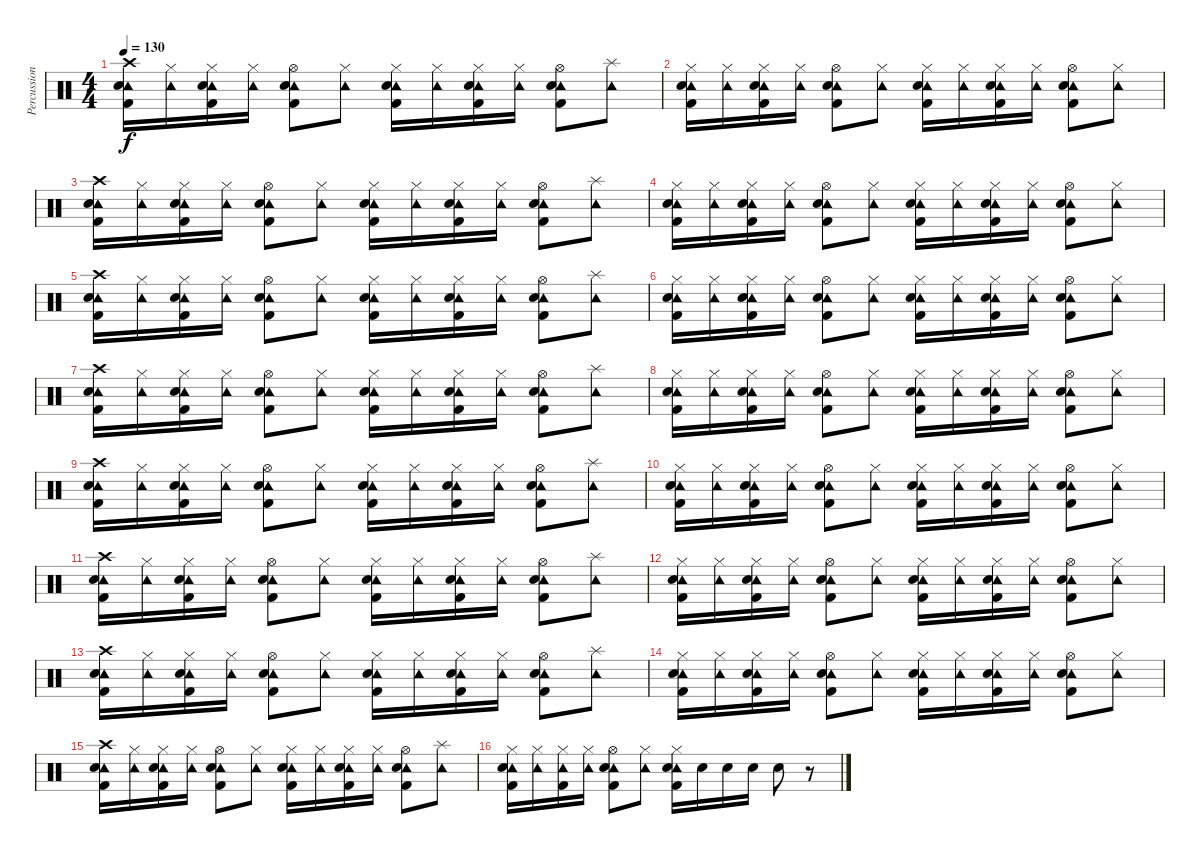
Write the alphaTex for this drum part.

\track ("Percussion" "Percussion") {instrument percussion}
\staff {score}
\articulation defaults
\ts (4 4)
\tempo 130
\clef neutral
\ks c
("Crash high (hit)" "Tambourine (hit)" "Electric Snare (hit)" "Kick (hit) 2").16{dy f volume 16} ("Hi-Hat (closed)" "Tambourine (hit)").16 ("Hi-Hat (closed)" "Tambourine (hit)" "Electric Snare (hit)" "Kick (hit) 2").16 ("Hi-Hat (closed)" "Tambourine (hit)").16 ("Hi-Hat (open)" "Tambourine (hit)" "Electric Snare (hit)" "Kick (hit) 2").8 ("Hi-Hat (closed)" "Tambourine (hit)").8 ("Hi-Hat (closed)" "Tambourine (hit)" "Electric Snare (hit)" "Kick (hit) 2").16 ("Hi-Hat (closed)" "Tambourine (hit)").16 ("Hi-Hat (closed)" "Tambourine (hit)" "Electric Snare (hit)" "Kick (hit) 2").16 ("Hi-Hat (closed)" "Tambourine (hit)").16 ("Hi-Hat (open)" "Tambourine (hit)" "Electric Snare (hit)" "Kick (hit) 2").8 ("Splash (hit)" "Tambourine (hit)").8 |
("Hi-Hat (closed)" "Tambourine (hit)" "Electric Snare (hit)" "Kick (hit) 2").16 ("Hi-Hat (closed)" "Tambourine (hit)").16 ("Hi-Hat (closed)" "Tambourine (hit)" "Electric Snare (hit)" "Kick (hit) 2").16 ("Hi-Hat (closed)" "Tambourine (hit)").16 ("Hi-Hat (open)" "Tambourine (hit)" "Electric Snare (hit)" "Kick (hit) 2").8 ("Hi-Hat (closed)" "Tambourine (hit)").8 ("Hi-Hat (closed)" "Tambourine (hit)" "Electric Snare (hit)" "Kick (hit) 2").16 ("Hi-Hat (closed)" "Tambourine (hit)").16 ("Hi-Hat (closed)" "Tambourine (hit)" "Electric Snare (hit)" "Kick (hit) 2").16 ("Hi-Hat (closed)" "Tambourine (hit)").16 ("Hi-Hat (open)" "Tambourine (hit)" "Electric Snare (hit)" "Kick (hit) 2").8 ("Hi-Hat (closed)" "Tambourine (hit)").8 |
("Crash high (hit)" "Tambourine (hit)" "Electric Snare (hit)" "Kick (hit) 2").16{volume 16} ("Hi-Hat (closed)" "Tambourine (hit)").16 ("Hi-Hat (closed)" "Tambourine (hit)" "Electric Snare (hit)" "Kick (hit) 2").16 ("Hi-Hat (closed)" "Tambourine (hit)").16 ("Hi-Hat (open)" "Tambourine (hit)" "Electric Snare (hit)" "Kick (hit) 2").8 ("Hi-Hat (closed)" "Tambourine (hit)").8 ("Hi-Hat (closed)" "Tambourine (hit)" "Electric Snare (hit)" "Kick (hit) 2").16 ("Hi-Hat (closed)" "Tambourine (hit)").16 ("Hi-Hat (closed)" "Tambourine (hit)" "Electric Snare (hit)" "Kick (hit) 2").16 ("Hi-Hat (closed)" "Tambourine (hit)").16 ("Hi-Hat (open)" "Tambourine (hit)" "Electric Snare (hit)" "Kick (hit) 2").8 ("Splash (hit)" "Tambourine (hit)").8 |
("Hi-Hat (closed)" "Tambourine (hit)" "Electric Snare (hit)" "Kick (hit) 2").16 ("Hi-Hat (closed)" "Tambourine (hit)").16 ("Hi-Hat (closed)" "Tambourine (hit)" "Electric Snare (hit)" "Kick (hit) 2").16 ("Hi-Hat (closed)" "Tambourine (hit)").16 ("Hi-Hat (open)" "Tambourine (hit)" "Electric Snare (hit)" "Kick (hit) 2").8 ("Hi-Hat (closed)" "Tambourine (hit)").8 ("Hi-Hat (closed)" "Tambourine (hit)" "Electric Snare (hit)" "Kick (hit) 2").16 ("Hi-Hat (closed)" "Tambourine (hit)").16 ("Hi-Hat (closed)" "Tambourine (hit)" "Electric Snare (hit)" "Kick (hit) 2").16 ("Hi-Hat (closed)" "Tambourine (hit)").16 ("Hi-Hat (open)" "Tambourine (hit)" "Electric Snare (hit)" "Kick (hit) 2").8 ("Hi-Hat (closed)" "Tambourine (hit)").8 |
("Crash high (hit)" "Tambourine (hit)" "Electric Snare (hit)" "Kick (hit) 2").16{volume 16} ("Hi-Hat (closed)" "Tambourine (hit)").16 ("Hi-Hat (closed)" "Tambourine (hit)" "Electric Snare (hit)" "Kick (hit) 2").16 ("Hi-Hat (closed)" "Tambourine (hit)").16 ("Hi-Hat (open)" "Tambourine (hit)" "Electric Snare (hit)" "Kick (hit) 2").8 ("Hi-Hat (closed)" "Tambourine (hit)").8 ("Hi-Hat (closed)" "Tambourine (hit)" "Electric Snare (hit)" "Kick (hit) 2").16 ("Hi-Hat (closed)" "Tambourine (hit)").16 ("Hi-Hat (closed)" "Tambourine (hit)" "Electric Snare (hit)" "Kick (hit) 2").16 ("Hi-Hat (closed)" "Tambourine (hit)").16 ("Hi-Hat (open)" "Tambourine (hit)" "Electric Snare (hit)" "Kick (hit) 2").8 ("Splash (hit)" "Tambourine (hit)").8 |
("Hi-Hat (closed)" "Tambourine (hit)" "Electric Snare (hit)" "Kick (hit) 2").16 ("Hi-Hat (closed)" "Tambourine (hit)").16 ("Hi-Hat (closed)" "Tambourine (hit)" "Electric Snare (hit)" "Kick (hit) 2").16 ("Hi-Hat (closed)" "Tambourine (hit)").16 ("Hi-Hat (open)" "Tambourine (hit)" "Electric Snare (hit)" "Kick (hit) 2").8 ("Hi-Hat (closed)" "Tambourine (hit)").8 ("Hi-Hat (closed)" "Tambourine (hit)" "Electric Snare (hit)" "Kick (hit) 2").16 ("Hi-Hat (closed)" "Tambourine (hit)").16 ("Hi-Hat (closed)" "Tambourine (hit)" "Electric Snare (hit)" "Kick (hit) 2").16 ("Hi-Hat (closed)" "Tambourine (hit)").16 ("Hi-Hat (open)" "Tambourine (hit)" "Electric Snare (hit)" "Kick (hit) 2").8 ("Hi-Hat (closed)" "Tambourine (hit)").8 |
("Crash high (hit)" "Tambourine (hit)" "Electric Snare (hit)" "Kick (hit) 2").16{volume 16} ("Hi-Hat (closed)" "Tambourine (hit)").16 ("Hi-Hat (closed)" "Tambourine (hit)" "Electric Snare (hit)" "Kick (hit) 2").16 ("Hi-Hat (closed)" "Tambourine (hit)").16 ("Hi-Hat (open)" "Tambourine (hit)" "Electric Snare (hit)" "Kick (hit) 2").8 ("Hi-Hat (closed)" "Tambourine (hit)").8 ("Hi-Hat (closed)" "Tambourine (hit)" "Electric Snare (hit)" "Kick (hit) 2").16 ("Hi-Hat (closed)" "Tambourine (hit)").16 ("Hi-Hat (closed)" "Tambourine (hit)" "Electric Snare (hit)" "Kick (hit) 2").16 ("Hi-Hat (closed)" "Tambourine (hit)").16 ("Hi-Hat (open)" "Tambourine (hit)" "Electric Snare (hit)" "Kick (hit) 2").8 ("Splash (hit)" "Tambourine (hit)").8 |
("Hi-Hat (closed)" "Tambourine (hit)" "Electric Snare (hit)" "Kick (hit) 2").16 ("Hi-Hat (closed)" "Tambourine (hit)").16 ("Hi-Hat (closed)" "Tambourine (hit)" "Electric Snare (hit)" "Kick (hit) 2").16 ("Hi-Hat (closed)" "Tambourine (hit)").16 ("Hi-Hat (open)" "Tambourine (hit)" "Electric Snare (hit)" "Kick (hit) 2").8 ("Hi-Hat (closed)" "Tambourine (hit)").8 ("Hi-Hat (closed)" "Tambourine (hit)" "Electric Snare (hit)" "Kick (hit) 2").16 ("Hi-Hat (closed)" "Tambourine (hit)").16 ("Hi-Hat (closed)" "Tambourine (hit)" "Electric Snare (hit)" "Kick (hit) 2").16 ("Hi-Hat (closed)" "Tambourine (hit)").16 ("Hi-Hat (open)" "Tambourine (hit)" "Electric Snare (hit)" "Kick (hit) 2").8 ("Hi-Hat (closed)" "Tambourine (hit)").8 |
("Crash high (hit)" "Tambourine (hit)" "Electric Snare (hit)" "Kick (hit) 2").16{volume 16} ("Hi-Hat (closed)" "Tambourine (hit)").16 ("Hi-Hat (closed)" "Tambourine (hit)" "Electric Snare (hit)" "Kick (hit) 2").16 ("Hi-Hat (closed)" "Tambourine (hit)").16 ("Hi-Hat (open)" "Tambourine (hit)" "Electric Snare (hit)" "Kick (hit) 2").8 ("Hi-Hat (closed)" "Tambourine (hit)").8 ("Hi-Hat (closed)" "Tambourine (hit)" "Electric Snare (hit)" "Kick (hit) 2").16 ("Hi-Hat (closed)" "Tambourine (hit)").16 ("Hi-Hat (closed)" "Tambourine (hit)" "Electric Snare (hit)" "Kick (hit) 2").16 ("Hi-Hat (closed)" "Tambourine (hit)").16 ("Hi-Hat (open)" "Tambourine (hit)" "Electric Snare (hit)" "Kick (hit) 2").8 ("Splash (hit)" "Tambourine (hit)").8 |
("Hi-Hat (closed)" "Tambourine (hit)" "Electric Snare (hit)" "Kick (hit) 2").16 ("Hi-Hat (closed)" "Tambourine (hit)").16 ("Hi-Hat (closed)" "Tambourine (hit)" "Electric Snare (hit)" "Kick (hit) 2").16 ("Hi-Hat (closed)" "Tambourine (hit)").16 ("Hi-Hat (open)" "Tambourine (hit)" "Electric Snare (hit)" "Kick (hit) 2").8 ("Hi-Hat (closed)" "Tambourine (hit)").8 ("Hi-Hat (closed)" "Tambourine (hit)" "Electric Snare (hit)" "Kick (hit) 2").16 ("Hi-Hat (closed)" "Tambourine (hit)").16 ("Hi-Hat (closed)" "Tambourine (hit)" "Electric Snare (hit)" "Kick (hit) 2").16 ("Hi-Hat (closed)" "Tambourine (hit)").16 ("Hi-Hat (open)" "Tambourine (hit)" "Electric Snare (hit)" "Kick (hit) 2").8 ("Hi-Hat (closed)" "Tambourine (hit)").8 |
("Crash high (hit)" "Tambourine (hit)" "Electric Snare (hit)" "Kick (hit) 2").16{volume 16} ("Hi-Hat (closed)" "Tambourine (hit)").16 ("Hi-Hat (closed)" "Tambourine (hit)" "Electric Snare (hit)" "Kick (hit) 2").16 ("Hi-Hat (closed)" "Tambourine (hit)").16 ("Hi-Hat (open)" "Tambourine (hit)" "Electric Snare (hit)" "Kick (hit) 2").8 ("Hi-Hat (closed)" "Tambourine (hit)").8 ("Hi-Hat (closed)" "Tambourine (hit)" "Electric Snare (hit)" "Kick (hit) 2").16 ("Hi-Hat (closed)" "Tambourine (hit)").16 ("Hi-Hat (closed)" "Tambourine (hit)" "Electric Snare (hit)" "Kick (hit) 2").16 ("Hi-Hat (closed)" "Tambourine (hit)").16 ("Hi-Hat (open)" "Tambourine (hit)" "Electric Snare (hit)" "Kick (hit) 2").8 ("Splash (hit)" "Tambourine (hit)").8 |
("Hi-Hat (closed)" "Tambourine (hit)" "Electric Snare (hit)" "Kick (hit) 2").16 ("Hi-Hat (closed)" "Tambourine (hit)").16 ("Hi-Hat (closed)" "Tambourine (hit)" "Electric Snare (hit)" "Kick (hit) 2").16 ("Hi-Hat (closed)" "Tambourine (hit)").16 ("Hi-Hat (open)" "Tambourine (hit)" "Electric Snare (hit)" "Kick (hit) 2").8 ("Hi-Hat (closed)" "Tambourine (hit)").8 ("Hi-Hat (closed)" "Tambourine (hit)" "Electric Snare (hit)" "Kick (hit) 2").16 ("Hi-Hat (closed)" "Tambourine (hit)").16 ("Hi-Hat (closed)" "Tambourine (hit)" "Electric Snare (hit)" "Kick (hit) 2").16 ("Hi-Hat (closed)" "Tambourine (hit)").16 ("Hi-Hat (open)" "Tambourine (hit)" "Electric Snare (hit)" "Kick (hit) 2").8 ("Hi-Hat (closed)" "Tambourine (hit)").8 |
("Crash high (hit)" "Tambourine (hit)" "Electric Snare (hit)" "Kick (hit) 2").16{volume 16} ("Hi-Hat (closed)" "Tambourine (hit)").16 ("Hi-Hat (closed)" "Tambourine (hit)" "Electric Snare (hit)" "Kick (hit) 2").16 ("Hi-Hat (closed)" "Tambourine (hit)").16 ("Hi-Hat (open)" "Tambourine (hit)" "Electric Snare (hit)" "Kick (hit) 2").8 ("Hi-Hat (closed)" "Tambourine (hit)").8 ("Hi-Hat (closed)" "Tambourine (hit)" "Electric Snare (hit)" "Kick (hit) 2").16 ("Hi-Hat (closed)" "Tambourine (hit)").16 ("Hi-Hat (closed)" "Tambourine (hit)" "Electric Snare (hit)" "Kick (hit) 2").16 ("Hi-Hat (closed)" "Tambourine (hit)").16 ("Hi-Hat (open)" "Tambourine (hit)" "Electric Snare (hit)" "Kick (hit) 2").8 ("Splash (hit)" "Tambourine (hit)").8 |
("Hi-Hat (closed)" "Tambourine (hit)" "Electric Snare (hit)" "Kick (hit) 2").16 ("Hi-Hat (closed)" "Tambourine (hit)").16 ("Hi-Hat (closed)" "Tambourine (hit)" "Electric Snare (hit)" "Kick (hit) 2").16 ("Hi-Hat (closed)" "Tambourine (hit)").16 ("Hi-Hat (open)" "Tambourine (hit)" "Electric Snare (hit)" "Kick (hit) 2").8 ("Hi-Hat (closed)" "Tambourine (hit)").8 ("Hi-Hat (closed)" "Tambourine (hit)" "Electric Snare (hit)" "Kick (hit) 2").16 ("Hi-Hat (closed)" "Tambourine (hit)").16 ("Hi-Hat (closed)" "Tambourine (hit)" "Electric Snare (hit)" "Kick (hit) 2").16 ("Hi-Hat (closed)" "Tambourine (hit)").16 ("Hi-Hat (open)" "Tambourine (hit)" "Electric Snare (hit)" "Kick (hit) 2").8 ("Hi-Hat (closed)" "Tambourine (hit)").8 |
("Crash high (hit)" "Tambourine (hit)" "Electric Snare (hit)" "Kick (hit) 2").16{volume 16} ("Hi-Hat (closed)" "Tambourine (hit)").16 ("Hi-Hat (closed)" "Tambourine (hit)" "Electric Snare (hit)" "Kick (hit) 2").16 ("Hi-Hat (closed)" "Tambourine (hit)").16 ("Hi-Hat (open)" "Tambourine (hit)" "Electric Snare (hit)" "Kick (hit) 2").8 ("Hi-Hat (closed)" "Tambourine (hit)").8 ("Hi-Hat (closed)" "Tambourine (hit)" "Electric Snare (hit)" "Kick (hit) 2").16 ("Hi-Hat (closed)" "Tambourine (hit)").16 ("Hi-Hat (closed)" "Tambourine (hit)" "Electric Snare (hit)" "Kick (hit) 2").16 ("Hi-Hat (closed)" "Tambourine (hit)").16 ("Hi-Hat (open)" "Tambourine (hit)" "Electric Snare (hit)" "Kick (hit) 2").8 ("Splash (hit)" "Tambourine (hit)").8 |
("Hi-Hat (closed)" "Tambourine (hit)" "Electric Snare (hit)" "Kick (hit) 2").16 ("Hi-Hat (closed)" "Tambourine (hit)").16 ("Hi-Hat (closed)" "Tambourine (hit)" "Kick (hit) 2").16 ("Hi-Hat (closed)" "Tambourine (hit)").16 ("Hi-Hat (open)" "Tambourine (hit)" "Electric Snare (hit)" "Kick (hit) 2").8 ("Hi-Hat (closed)" "Tambourine (hit)").8 ("Hi-Hat (closed)" "Tambourine (hit)" "Electric Snare (hit)" "Kick (hit) 2").16 "Electric Snare (hit)".16 "Electric Snare (hit)".16 "Electric Snare (hit)".16 "Electric Snare (hit)".8 r.8
